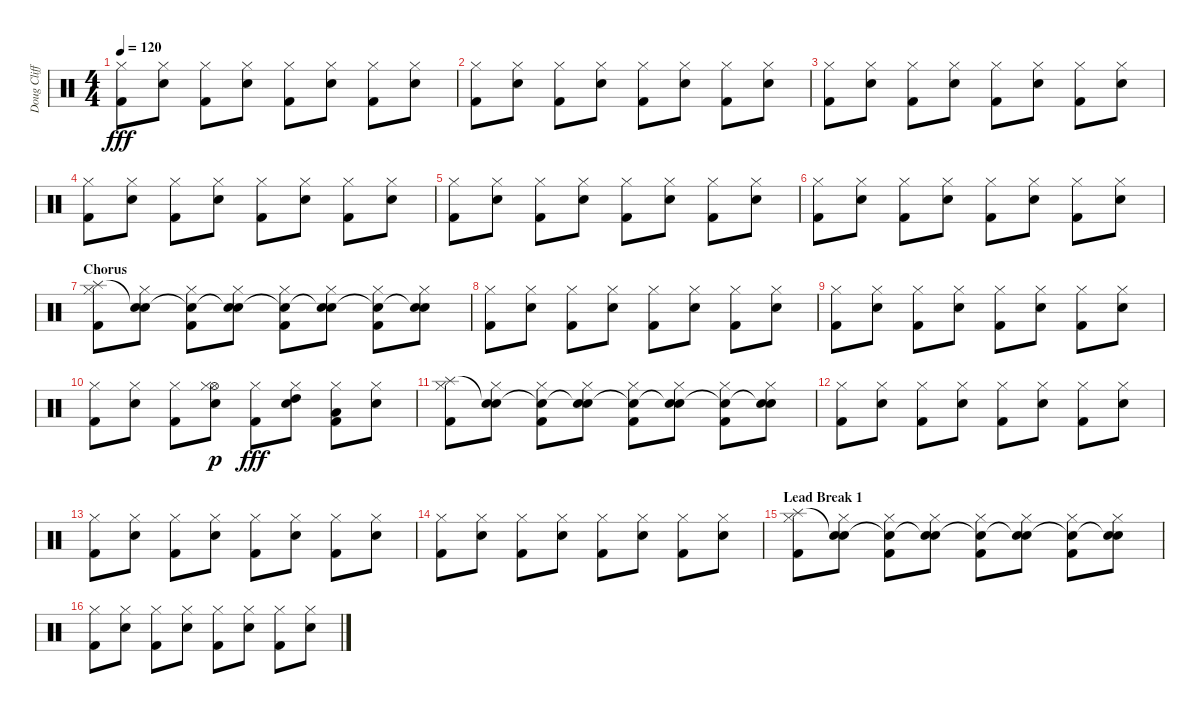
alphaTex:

\track ("Doug Clifford" "Doug Cliff") {instrument percussion}
\staff {score}
\articulation defaults
\ts (4 4)
\tempo 120
\clef neutral
\ks c
("Hi-Hat (closed)" "Kick (hit) 2").8{dy fff} ("Hi-Hat (closed)" "Snare (hit) 2").8 ("Hi-Hat (closed)" "Kick (hit) 2").8 ("Hi-Hat (closed)" "Snare (hit) 2").8 ("Hi-Hat (closed)" "Kick (hit) 2").8 ("Hi-Hat (closed)" "Snare (hit) 2").8 ("Hi-Hat (closed)" "Kick (hit) 2").8 ("Hi-Hat (closed)" "Snare (hit) 2").8 |
("Hi-Hat (closed)" "Kick (hit) 2").8 ("Hi-Hat (closed)" "Snare (hit) 2").8 ("Hi-Hat (closed)" "Kick (hit) 2").8 ("Hi-Hat (closed)" "Snare (hit) 2").8 ("Hi-Hat (closed)" "Kick (hit) 2").8 ("Hi-Hat (closed)" "Snare (hit) 2").8 ("Hi-Hat (closed)" "Kick (hit) 2").8 ("Hi-Hat (closed)" "Snare (hit) 2").8 |
("Hi-Hat (closed)" "Kick (hit) 2").8 ("Hi-Hat (closed)" "Snare (hit) 2").8 ("Hi-Hat (closed)" "Kick (hit) 2").8 ("Hi-Hat (closed)" "Snare (hit) 2").8 ("Hi-Hat (closed)" "Kick (hit) 2").8 ("Hi-Hat (closed)" "Snare (hit) 2").8 ("Hi-Hat (closed)" "Kick (hit) 2").8 ("Hi-Hat (closed)" "Snare (hit) 2").8 |
("Hi-Hat (closed)" "Kick (hit) 2").8 ("Hi-Hat (closed)" "Snare (hit) 2").8 ("Hi-Hat (closed)" "Kick (hit) 2").8 ("Hi-Hat (closed)" "Snare (hit) 2").8 ("Hi-Hat (closed)" "Kick (hit) 2").8 ("Hi-Hat (closed)" "Snare (hit) 2").8 ("Hi-Hat (closed)" "Kick (hit) 2").8 ("Hi-Hat (closed)" "Snare (hit) 2").8 |
("Hi-Hat (closed)" "Kick (hit) 2").8 ("Hi-Hat (closed)" "Snare (hit) 2").8 ("Hi-Hat (closed)" "Kick (hit) 2").8 ("Hi-Hat (closed)" "Snare (hit) 2").8 ("Hi-Hat (closed)" "Kick (hit) 2").8 ("Hi-Hat (closed)" "Snare (hit) 2").8 ("Hi-Hat (closed)" "Kick (hit) 2").8 ("Hi-Hat (closed)" "Snare (hit) 2").8 |
("Hi-Hat (closed)" "Kick (hit) 2").8 ("Hi-Hat (closed)" "Snare (hit) 2").8 ("Hi-Hat (closed)" "Kick (hit) 2").8 ("Hi-Hat (closed)" "Snare (hit) 2").8 ("Hi-Hat (closed)" "Kick (hit) 2").8 ("Hi-Hat (closed)" "Snare (hit) 2").8 ("Hi-Hat (closed)" "Kick (hit) 2").8 ("Hi-Hat (closed)" "Snare (hit) 2").8 |
\section ("" "Chorus")
("Splash (hit)" "Hi-Hat (closed)" "Kick (hit) 2").8 ("Snare (hit)"{t} "Hi-Hat (closed)" "Snare (hit) 2").8 ("Snare (hit)"{t} "Hi-Hat (closed)" "Kick (hit) 2").8 ("Snare (hit)"{t} "Hi-Hat (closed)" "Snare (hit) 2").8 ("Snare (hit)"{t} "Hi-Hat (closed)" "Kick (hit) 2").8 ("Snare (hit)"{t} "Hi-Hat (closed)" "Snare (hit) 2").8 ("Snare (hit)"{t} "Hi-Hat (closed)" "Kick (hit) 2").8 ("Snare (hit)"{t} "Hi-Hat (closed)" "Snare (hit) 2").8 |
("Hi-Hat (closed)" "Kick (hit) 2").8 ("Hi-Hat (closed)" "Snare (hit) 2").8 ("Hi-Hat (closed)" "Kick (hit) 2").8 ("Hi-Hat (closed)" "Snare (hit) 2").8 ("Hi-Hat (closed)" "Kick (hit) 2").8 ("Hi-Hat (closed)" "Snare (hit) 2").8 ("Hi-Hat (closed)" "Kick (hit) 2").8 ("Hi-Hat (closed)" "Snare (hit) 2").8 |
("Hi-Hat (closed)" "Kick (hit) 2").8 ("Hi-Hat (closed)" "Snare (hit) 2").8 ("Hi-Hat (closed)" "Kick (hit) 2").8 ("Hi-Hat (closed)" "Snare (hit) 2").8 ("Hi-Hat (closed)" "Kick (hit) 2").8 ("Hi-Hat (closed)" "Snare (hit) 2").8 ("Hi-Hat (closed)" "Kick (hit) 2").8 ("Hi-Hat (closed)" "Snare (hit) 2").8 |
("Hi-Hat (closed)" "Kick (hit) 2").8 ("Hi-Hat (closed)" "Snare (hit) 2").8 ("Hi-Hat (closed)" "Kick (hit) 2").8 ("Hi-Hat (open)" "Hi-Hat (closed)" "Snare (hit) 2").8{dy p} ("Hi-Hat (closed)" "Kick (hit) 2").8{dy fff} ("High Tom (hit)" "Hi-Hat (closed)" "Snare (hit) 2").8 ("Low Tom (hit)" "Hi-Hat (closed)" "Kick (hit) 2").8 ("Hi-Hat (closed)" "Electric Snare (hit)").8 |
("Splash (hit)" "Hi-Hat (closed)" "Kick (hit) 2").8 ("Snare (hit)"{t} "Hi-Hat (closed)" "Snare (hit) 2").8 ("Snare (hit)"{t} "Hi-Hat (closed)" "Kick (hit) 2").8 ("Snare (hit)"{t} "Hi-Hat (closed)" "Snare (hit) 2").8 ("Snare (hit)"{t} "Hi-Hat (closed)" "Kick (hit) 2").8 ("Snare (hit)"{t} "Hi-Hat (closed)" "Snare (hit) 2").8 ("Snare (hit)"{t} "Hi-Hat (closed)" "Kick (hit) 2").8 ("Snare (hit)"{t} "Hi-Hat (closed)" "Snare (hit) 2").8 |
("Hi-Hat (closed)" "Kick (hit) 2").8 ("Hi-Hat (closed)" "Snare (hit) 2").8 ("Hi-Hat (closed)" "Kick (hit) 2").8 ("Hi-Hat (closed)" "Snare (hit) 2").8 ("Hi-Hat (closed)" "Kick (hit) 2").8 ("Hi-Hat (closed)" "Snare (hit) 2").8 ("Hi-Hat (closed)" "Kick (hit) 2").8 ("Hi-Hat (closed)" "Snare (hit) 2").8 |
("Hi-Hat (closed)" "Kick (hit) 2").8 ("Hi-Hat (closed)" "Snare (hit) 2").8 ("Hi-Hat (closed)" "Kick (hit) 2").8 ("Hi-Hat (closed)" "Snare (hit) 2").8 ("Hi-Hat (closed)" "Kick (hit) 2").8 ("Hi-Hat (closed)" "Snare (hit) 2").8 ("Hi-Hat (closed)" "Kick (hit) 2").8 ("Hi-Hat (closed)" "Snare (hit) 2").8 |
("Hi-Hat (closed)" "Kick (hit) 2").8 ("Hi-Hat (closed)" "Snare (hit) 2").8 ("Hi-Hat (closed)" "Kick (hit) 2").8 ("Hi-Hat (closed)" "Snare (hit) 2").8 ("Hi-Hat (closed)" "Kick (hit) 2").8 ("Hi-Hat (closed)" "Snare (hit) 2").8 ("Hi-Hat (closed)" "Kick (hit) 2").8 ("Hi-Hat (closed)" "Snare (hit) 2").8 |
\section ("" "Lead Break 1")
("Splash (hit)" "Hi-Hat (closed)" "Kick (hit) 2").8 ("Snare (hit)"{t} "Hi-Hat (closed)" "Snare (hit) 2").8 ("Snare (hit)"{t} "Hi-Hat (closed)" "Kick (hit) 2").8 ("Snare (hit)"{t} "Hi-Hat (closed)" "Snare (hit) 2").8 ("Snare (hit)"{t} "Hi-Hat (closed)" "Kick (hit) 2").8 ("Snare (hit)"{t} "Hi-Hat (closed)" "Snare (hit) 2").8 ("Snare (hit)"{t} "Hi-Hat (closed)" "Kick (hit) 2").8 ("Snare (hit)"{t} "Hi-Hat (closed)" "Snare (hit) 2").8 |
("Hi-Hat (closed)" "Kick (hit) 2").8 ("Hi-Hat (closed)" "Snare (hit) 2").8 ("Hi-Hat (closed)" "Kick (hit) 2").8 ("Hi-Hat (closed)" "Snare (hit) 2").8 ("Hi-Hat (closed)" "Kick (hit) 2").8 ("Hi-Hat (closed)" "Snare (hit) 2").8 ("Hi-Hat (closed)" "Kick (hit) 2").8 ("Hi-Hat (closed)" "Snare (hit) 2").8
